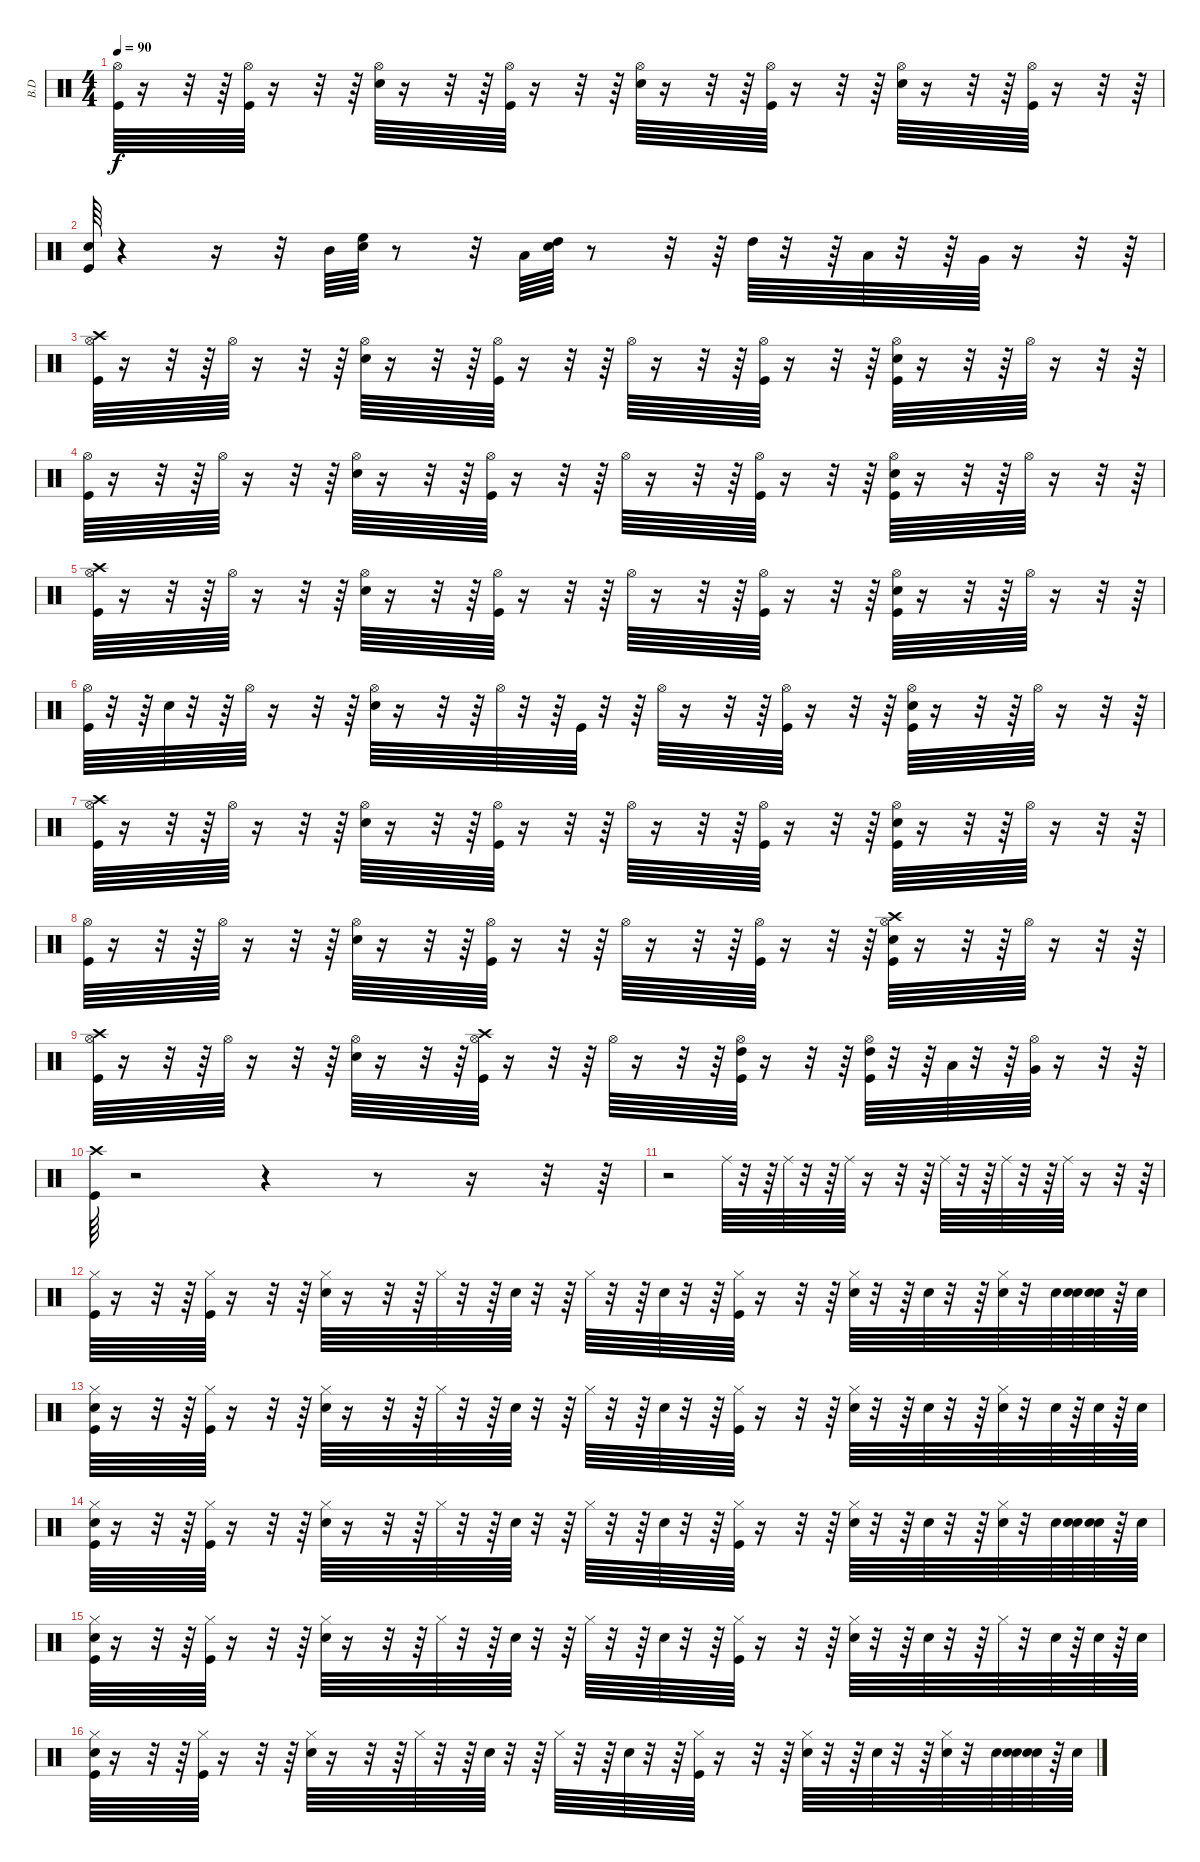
\track ("B.D" "B.D") {instrument percussion}
\staff {score}
\articulation defaults
\ts (4 4)
\tempo 90
\clef neutral
\ks c
("Kick (hit)" "Hi-Hat (open)").64{dy f} r.16 r.32 r.64 ("Kick (hit)" "Hi-Hat (open)").64 r.16 r.32 r.64 ("Electric Snare (hit)" "Hi-Hat (open)").64 r.16 r.32 r.64 ("Kick (hit)" "Hi-Hat (open)").64 r.16 r.32 r.64 ("Electric Snare (hit)" "Hi-Hat (open)").64 r.16 r.32 r.64 ("Kick (hit)" "Hi-Hat (open)").64 r.16 r.32 r.64 ("Electric Snare (hit)" "Hi-Hat (open)").64 r.16 r.32 r.64 ("Kick (hit)" "Hi-Hat (open)").64 r.16 r.32 r.64 |
("Electric Snare (hit)" "Kick (hit)").64 r.4 r.16 r.32 "Mid Tom (hit)".64 ("Snare (hit)" "High Floor Tom (hit)").64 r.8 r.32 "Low Tom (hit)".64 ("Snare (hit)" "High Tom (hit)").64 r.8 r.32 r.64 "High Tom (hit)".64 r.32 r.64 "Low Tom (hit)".64 r.32 r.64 "Very Low Tom (hit)".64 r.16 r.32 r.64 |
("Kick (hit)" "Hi-Hat (open)" "Crash high (hit)").64 r.16 r.32 r.64 "Hi-Hat (open)".64 r.16 r.32 r.64 ("Electric Snare (hit)" "Hi-Hat (open)").64 r.16 r.32 r.64 ("Kick (hit)" "Hi-Hat (open)").64 r.16 r.32 r.64 "Hi-Hat (open)".64 r.16 r.32 r.64 ("Kick (hit)" "Hi-Hat (open)").64 r.16 r.32 r.64 ("Kick (hit)" "Electric Snare (hit)" "Hi-Hat (open)").64 r.16 r.32 r.64 "Hi-Hat (open)".64 r.16 r.32 r.64 |
("Kick (hit)" "Hi-Hat (open)").64 r.16 r.32 r.64 "Hi-Hat (open)".64 r.16 r.32 r.64 ("Electric Snare (hit)" "Hi-Hat (open)").64 r.16 r.32 r.64 ("Kick (hit)" "Hi-Hat (open)").64 r.16 r.32 r.64 "Hi-Hat (open)".64 r.16 r.32 r.64 ("Kick (hit)" "Hi-Hat (open)").64 r.16 r.32 r.64 ("Kick (hit)" "Electric Snare (hit)" "Hi-Hat (open)").64 r.16 r.32 r.64 "Hi-Hat (open)".64 r.16 r.32 r.64 |
("Kick (hit)" "Hi-Hat (open)" "Crash high (hit)").64 r.16 r.32 r.64 "Hi-Hat (open)".64 r.16 r.32 r.64 ("Electric Snare (hit)" "Hi-Hat (open)").64 r.16 r.32 r.64 ("Kick (hit)" "Hi-Hat (open)").64 r.16 r.32 r.64 "Hi-Hat (open)".64 r.16 r.32 r.64 ("Kick (hit)" "Hi-Hat (open)").64 r.16 r.32 r.64 ("Kick (hit)" "Electric Snare (hit)" "Hi-Hat (open)").64 r.16 r.32 r.64 "Hi-Hat (open)".64 r.16 r.32 r.64 |
("Kick (hit)" "Hi-Hat (open)").64 r.32 r.64 "Electric Snare (hit)".64 r.32 r.64 "Hi-Hat (open)".64 r.16 r.32 r.64 ("Electric Snare (hit)" "Hi-Hat (open)").64 r.16 r.32 r.64 "Hi-Hat (open)".64 r.32 r.64 "Kick (hit)".64 r.32 r.64 "Hi-Hat (open)".64 r.16 r.32 r.64 ("Kick (hit)" "Hi-Hat (open)").64 r.16 r.32 r.64 ("Kick (hit)" "Electric Snare (hit)" "Hi-Hat (open)").64 r.16 r.32 r.64 "Hi-Hat (open)".64 r.16 r.32 r.64 |
("Kick (hit)" "Hi-Hat (open)" "Crash high (hit)").64 r.16 r.32 r.64 "Hi-Hat (open)".64 r.16 r.32 r.64 ("Electric Snare (hit)" "Hi-Hat (open)").64 r.16 r.32 r.64 ("Kick (hit)" "Hi-Hat (open)").64 r.16 r.32 r.64 "Hi-Hat (open)".64 r.16 r.32 r.64 ("Kick (hit)" "Hi-Hat (open)").64 r.16 r.32 r.64 ("Kick (hit)" "Electric Snare (hit)" "Hi-Hat (open)").64 r.16 r.32 r.64 "Hi-Hat (open)".64 r.16 r.32 r.64 |
("Kick (hit)" "Hi-Hat (open)").64 r.16 r.32 r.64 "Hi-Hat (open)".64 r.16 r.32 r.64 ("Electric Snare (hit)" "Hi-Hat (open)").64 r.16 r.32 r.64 ("Kick (hit)" "Hi-Hat (open)").64 r.16 r.32 r.64 "Hi-Hat (open)".64 r.16 r.32 r.64 ("Kick (hit)" "Hi-Hat (open)").64 r.16 r.32 r.64 ("Kick (hit)" "Electric Snare (hit)" "Hi-Hat (open)" "Crash high (hit)").64 r.16 r.32 r.64 "Hi-Hat (open)".64 r.16 r.32 r.64 |
("Kick (hit)" "Hi-Hat (open)" "Crash high (hit)").64 r.16 r.32 r.64 "Hi-Hat (open)".64 r.16 r.32 r.64 ("Electric Snare (hit)" "Hi-Hat (open)").64 r.16 r.32 r.64 ("Kick (hit)" "Hi-Hat (open)" "Crash high (hit)").64 r.16 r.32 r.64 "Hi-Hat (open)".64 r.16 r.32 r.64 ("Kick (hit)" "Hi-Hat (open)" "High Tom (hit)").64 r.16 r.32 r.64 ("Kick (hit)" "Hi-Hat (open)" "High Tom (hit)").64 r.32 r.64 "Low Tom (hit)".64 r.32 r.64 ("Hi-Hat (open)" "Very Low Tom (hit)").64 r.16 r.32 r.64 |
("Kick (hit)" "Crash high (hit)").64 r.2 r.4 r.8 r.16 r.32 r.64 |
r.2 "Ride (middle)".64 r.32 r.64 "Ride (middle)".64 r.32 r.64 "Ride (middle)".64 r.16 r.32 r.64 "Ride (middle)".64 r.32 r.64 "Ride (middle)".64 r.32 r.64 "Ride (middle)".64 r.16 r.32 r.64 |
("Kick (hit)" "Hi-Hat (closed)").64 r.16 r.32 r.64 ("Kick (hit)" "Hi-Hat (closed)").64 r.16 r.32 r.64 ("Electric Snare (hit)" "Hi-Hat (closed)").64 r.16 r.32 r.64 "Hi-Hat (closed)".64 r.32 r.64 "Electric Snare (hit)".64 r.32 r.64 "Hi-Hat (closed)".64 r.32 r.64 "Electric Snare (hit)".64 r.32 r.64 ("Kick (hit)" "Hi-Hat (closed)").64 r.16 r.32 r.64 ("Electric Snare (hit)" "Hi-Hat (closed)").64 r.32 r.64 "Electric Snare (hit)".64 r.32 r.64 ("Electric Snare (hit)" "Hi-Hat (closed)").64 r.32 "Electric Snare (hit)".64 ("Snare (hit)" "Electric Snare (hit)").64 ("Snare (hit)" "Electric Snare (hit)").64 r.64 "Electric Snare (hit)".64 |
("Snare (hit)" "Kick (hit)" "Hi-Hat (closed)").64 r.16 r.32 r.64 ("Kick (hit)" "Hi-Hat (closed)").64 r.16 r.32 r.64 ("Electric Snare (hit)" "Hi-Hat (closed)").64 r.16 r.32 r.64 "Hi-Hat (closed)".64 r.32 r.64 "Electric Snare (hit)".64 r.32 r.64 "Hi-Hat (closed)".64 r.32 r.64 "Electric Snare (hit)".64 r.32 r.64 ("Kick (hit)" "Hi-Hat (closed)").64 r.16 r.32 r.64 ("Electric Snare (hit)" "Hi-Hat (closed)").64 r.32 r.64 "Electric Snare (hit)".64 r.32 r.64 ("Electric Snare (hit)" "Hi-Hat (closed)").64 r.32 "Electric Snare (hit)".64 r.64 "Electric Snare (hit)".64 r.64 "Electric Snare (hit)".64 |
("Snare (hit)" "Kick (hit)" "Hi-Hat (closed)").64 r.16 r.32 r.64 ("Kick (hit)" "Hi-Hat (closed)").64 r.16 r.32 r.64 ("Electric Snare (hit)" "Hi-Hat (closed)").64 r.16 r.32 r.64 "Hi-Hat (closed)".64 r.32 r.64 "Electric Snare (hit)".64 r.32 r.64 "Hi-Hat (closed)".64 r.32 r.64 "Electric Snare (hit)".64 r.32 r.64 ("Kick (hit)" "Hi-Hat (closed)").64 r.16 r.32 r.64 ("Electric Snare (hit)" "Hi-Hat (closed)").64 r.32 r.64 "Electric Snare (hit)".64 r.32 r.64 ("Electric Snare (hit)" "Hi-Hat (closed)").64 r.32 "Electric Snare (hit)".64 ("Snare (hit)" "Electric Snare (hit)").64 ("Snare (hit)" "Electric Snare (hit)").64 r.64 "Electric Snare (hit)".64 |
("Snare (hit)" "Kick (hit)" "Hi-Hat (closed)").64 r.16 r.32 r.64 ("Kick (hit)" "Hi-Hat (closed)").64 r.16 r.32 r.64 ("Electric Snare (hit)" "Hi-Hat (closed)").64 r.16 r.32 r.64 "Hi-Hat (closed)".64 r.32 r.64 "Electric Snare (hit)".64 r.32 r.64 "Hi-Hat (closed)".64 r.32 r.64 "Electric Snare (hit)".64 r.32 r.64 ("Kick (hit)" "Hi-Hat (closed)").64 r.16 r.32 r.64 ("Electric Snare (hit)" "Hi-Hat (closed)").64 r.32 r.64 "Electric Snare (hit)".64 r.32 r.64 "Hi-Hat (closed)".64 r.32 "Electric Snare (hit)".64 r.64 "Electric Snare (hit)".64 r.64 "Electric Snare (hit)".64 |
("Snare (hit)" "Kick (hit)" "Hi-Hat (closed)").64 r.16 r.32 r.64 ("Kick (hit)" "Hi-Hat (closed)").64 r.16 r.32 r.64 ("Electric Snare (hit)" "Hi-Hat (closed)").64 r.16 r.32 r.64 "Hi-Hat (closed)".64 r.32 r.64 "Electric Snare (hit)".64 r.32 r.64 "Hi-Hat (closed)".64 r.32 r.64 "Electric Snare (hit)".64 r.32 r.64 ("Kick (hit)" "Hi-Hat (closed)").64 r.16 r.32 r.64 ("Electric Snare (hit)" "Hi-Hat (closed)").64 r.32 r.64 "Electric Snare (hit)".64 r.32 r.64 ("Electric Snare (hit)" "Hi-Hat (closed)").64 r.32 "Electric Snare (hit)".64 ("Snare (hit)" "Electric Snare (hit)").64 ("Snare (hit)" "Electric Snare (hit)").64 r.64 "Electric Snare (hit)".64
